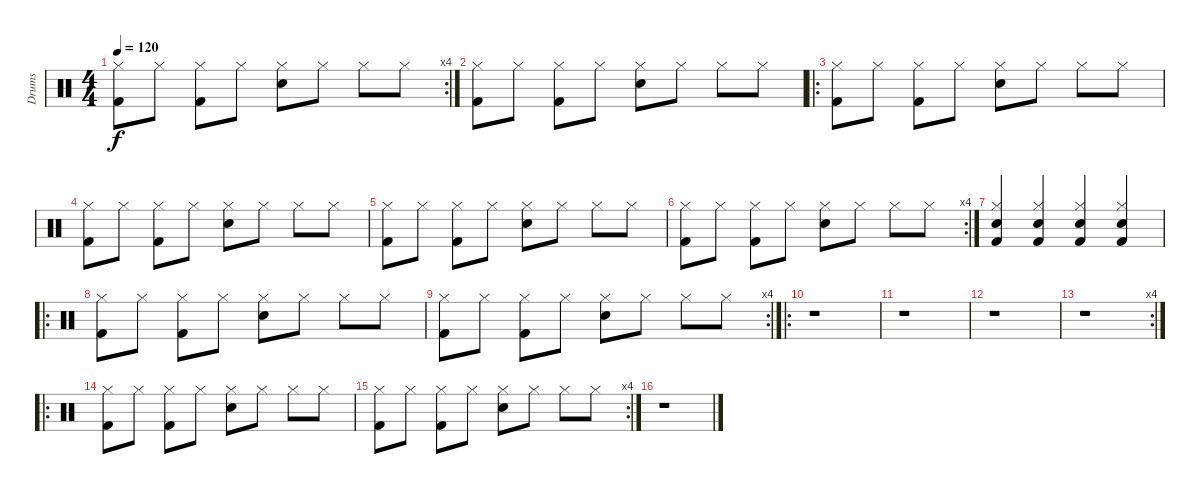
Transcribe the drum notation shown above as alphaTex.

\track ("Drums" "Drums") {instrument percussion}
\staff {score}
\articulation defaults
\rc 4
\ts (4 4)
\tempo 120
\clef neutral
\ks c
("Kick (hit) 2" "Hi-Hat (closed)").8{dy f} "Hi-Hat (closed)".8 ("Kick (hit) 2" "Hi-Hat (closed)").8 "Hi-Hat (closed)".8 ("Snare (hit) 2" "Hi-Hat (closed)").8 "Hi-Hat (closed)".8 "Hi-Hat (closed)".8 "Hi-Hat (closed)".8 |
("Kick (hit) 2" "Hi-Hat (closed)").8 "Hi-Hat (closed)".8 ("Kick (hit) 2" "Hi-Hat (closed)").8 "Hi-Hat (closed)".8 ("Snare (hit) 2" "Hi-Hat (closed)").8 "Hi-Hat (closed)".8 "Hi-Hat (closed)".8 "Hi-Hat (closed)".8 |
\ro
("Kick (hit) 2" "Hi-Hat (closed)").8 "Hi-Hat (closed)".8 ("Kick (hit) 2" "Hi-Hat (closed)").8 "Hi-Hat (closed)".8 ("Snare (hit) 2" "Hi-Hat (closed)").8 "Hi-Hat (closed)".8 "Hi-Hat (closed)".8 "Hi-Hat (closed)".8 |
("Kick (hit) 2" "Hi-Hat (closed)").8 "Hi-Hat (closed)".8 ("Kick (hit) 2" "Hi-Hat (closed)").8 "Hi-Hat (closed)".8 ("Snare (hit) 2" "Hi-Hat (closed)").8 "Hi-Hat (closed)".8 "Hi-Hat (closed)".8 "Hi-Hat (closed)".8 |
("Kick (hit) 2" "Hi-Hat (closed)").8 "Hi-Hat (closed)".8 ("Kick (hit) 2" "Hi-Hat (closed)").8 "Hi-Hat (closed)".8 ("Snare (hit) 2" "Hi-Hat (closed)").8 "Hi-Hat (closed)".8 "Hi-Hat (closed)".8 "Hi-Hat (closed)".8 |
\rc 4
("Kick (hit) 2" "Hi-Hat (closed)").8 "Hi-Hat (closed)".8 ("Kick (hit) 2" "Hi-Hat (closed)").8 "Hi-Hat (closed)".8 ("Snare (hit) 2" "Hi-Hat (closed)").8 "Hi-Hat (closed)".8 "Hi-Hat (closed)".8 "Hi-Hat (closed)".8 |
("Kick (hit) 2" "Hi-Hat (closed)" "Snare (hit) 2").4 ("Kick (hit) 2" "Hi-Hat (closed)" "Snare (hit) 2").4 ("Kick (hit) 2" "Hi-Hat (closed)" "Snare (hit) 2").4 ("Kick (hit) 2" "Hi-Hat (closed)" "Snare (hit) 2").4 |
\ro
("Kick (hit) 2" "Hi-Hat (closed)").8 "Hi-Hat (closed)".8 ("Kick (hit) 2" "Hi-Hat (closed)").8 "Hi-Hat (closed)".8 ("Snare (hit) 2" "Hi-Hat (closed)").8 "Hi-Hat (closed)".8 "Hi-Hat (closed)".8 "Hi-Hat (closed)".8 |
\rc 4
("Kick (hit) 2" "Hi-Hat (closed)").8 "Hi-Hat (closed)".8 ("Kick (hit) 2" "Hi-Hat (closed)").8 "Hi-Hat (closed)".8 ("Snare (hit) 2" "Hi-Hat (closed)").8 "Hi-Hat (closed)".8 "Hi-Hat (closed)".8 "Hi-Hat (closed)".8 |
\ro
r.1 |
r.1 |
r.1 |
\rc 4
r.1 |
\ro
("Kick (hit) 2" "Hi-Hat (closed)").8 "Hi-Hat (closed)".8 ("Kick (hit) 2" "Hi-Hat (closed)").8 "Hi-Hat (closed)".8 ("Snare (hit) 2" "Hi-Hat (closed)").8 "Hi-Hat (closed)".8 "Hi-Hat (closed)".8 "Hi-Hat (closed)".8 |
\rc 4
("Kick (hit) 2" "Hi-Hat (closed)").8 "Hi-Hat (closed)".8 ("Kick (hit) 2" "Hi-Hat (closed)").8 "Hi-Hat (closed)".8 ("Snare (hit) 2" "Hi-Hat (closed)").8 "Hi-Hat (closed)".8 "Hi-Hat (closed)".8 "Hi-Hat (closed)".8 |
r.1
